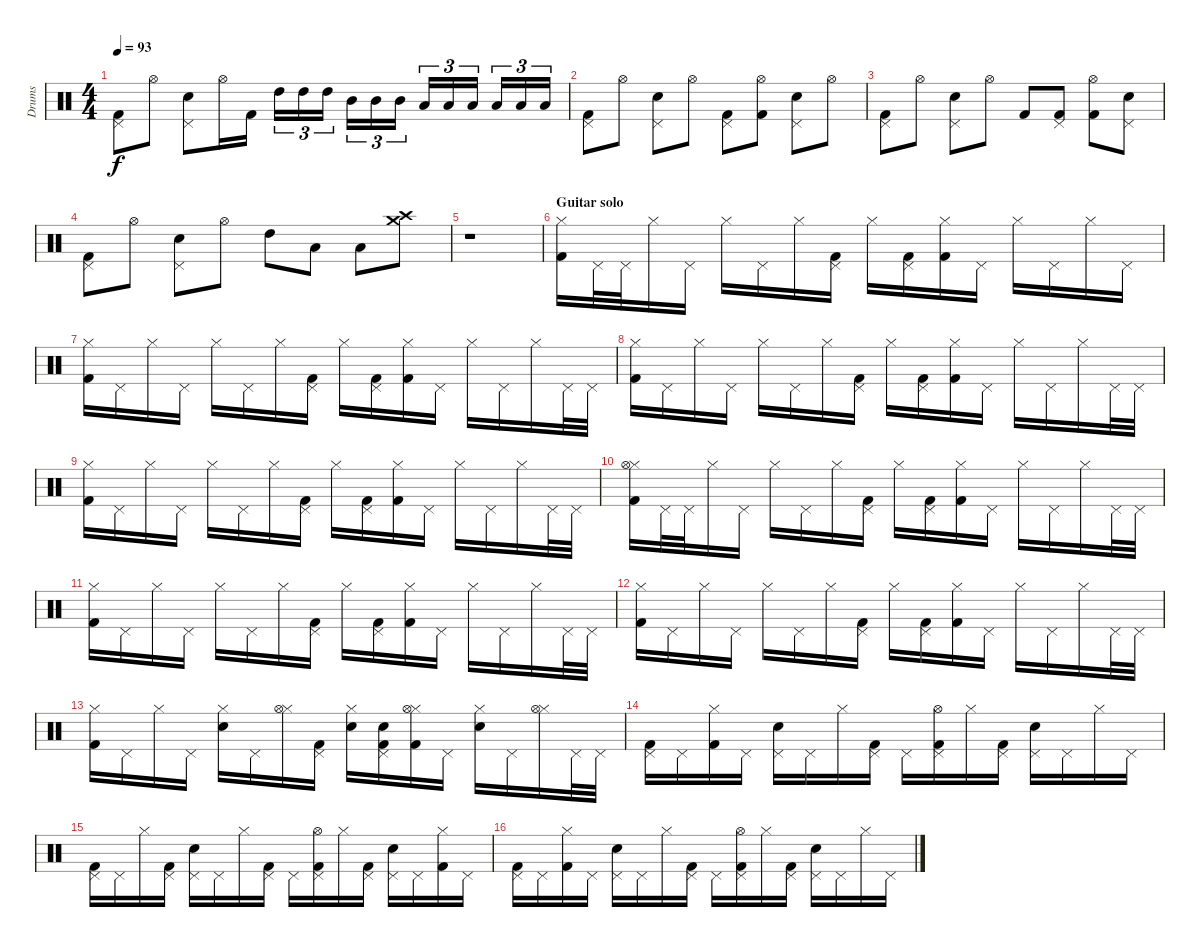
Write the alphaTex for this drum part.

\track ("Drums" "Drums") {instrument percussion}
\staff {score}
\articulation defaults
\ts (4 4)
\tempo 93
\clef neutral
\ks c
("Pedal Hi-Hat (hit)" "Kick (hit) 2").8{dy f} "Hi-Hat (open)".8 ("Pedal Hi-Hat (hit)" "Snare (hit) 2").8 "Hi-Hat (open)".16 "Kick (hit) 2".16 "High Tom (hit)".16{tu (3 2)} "High Tom (hit)".16{tu (3 2)} "High Tom (hit)".16{tu (3 2)} "Mid Tom (hit)".16{tu (3 2)} "Mid Tom (hit)".16{tu (3 2)} "Mid Tom (hit)".16{tu (3 2)} "Low Tom (hit)".16{tu (3 2)} "Low Tom (hit)".16{tu (3 2)} "Low Tom (hit)".16{tu (3 2)} "Low Floor Tom (hit)".16{tu (3 2)} "Low Floor Tom (hit)".16{tu (3 2)} "Low Floor Tom (hit)".16{tu (3 2)} |
("Pedal Hi-Hat (hit)" "Kick (hit) 2").8 "Hi-Hat (open)".8 ("Pedal Hi-Hat (hit)" "Snare (hit) 2").8 "Hi-Hat (open)".8 ("Pedal Hi-Hat (hit)" "Kick (hit) 2").8 ("Hi-Hat (open)" "Kick (hit) 2").8 ("Pedal Hi-Hat (hit)" "Snare (hit) 2").8 "Hi-Hat (open)".8 |
("Pedal Hi-Hat (hit)" "Kick (hit) 2").8 "Hi-Hat (open)".8 ("Pedal Hi-Hat (hit)" "Snare (hit) 2").8 "Hi-Hat (open)".8 "Kick (hit) 2".8 ("Pedal Hi-Hat (hit)" "Kick (hit) 2").8 ("Hi-Hat (open)" "Kick (hit) 2").8 ("Pedal Hi-Hat (hit)" "Snare (hit) 2").8 |
("Pedal Hi-Hat (hit)" "Kick (hit) 2").8 "Hi-Hat (open)".8 ("Pedal Hi-Hat (hit)" "Snare (hit) 2").8 "Hi-Hat (open)".8 "High Tom (hit)".8 "Low Tom (hit)".8 "Low Floor Tom (hit)".8 ("Crash high (hit)" "Crash medium (hit)").8 |
r.1 |
\section ("" "Guitar solo")
("Hi-Hat (closed)" "Kick (hit) 2").16 "Pedal Hi-Hat (hit)".32 "Pedal Hi-Hat (hit)".32 "Hi-Hat (closed)".16 "Pedal Hi-Hat (hit)".16 "Hi-Hat (closed)".16 "Pedal Hi-Hat (hit)".16 "Hi-Hat (closed)".16 ("Pedal Hi-Hat (hit)" "Kick (hit) 2").16 "Hi-Hat (closed)".16 ("Pedal Hi-Hat (hit)" "Kick (hit) 2").16 ("Hi-Hat (closed)" "Kick (hit) 2").16 "Pedal Hi-Hat (hit)".16 "Hi-Hat (closed)".16 "Pedal Hi-Hat (hit)".16 "Hi-Hat (closed)".16 "Pedal Hi-Hat (hit)".16 |
("Hi-Hat (closed)" "Kick (hit) 2").16 "Pedal Hi-Hat (hit)".16 "Hi-Hat (closed)".16 "Pedal Hi-Hat (hit)".16 "Hi-Hat (closed)".16 "Pedal Hi-Hat (hit)".16 "Hi-Hat (closed)".16 ("Pedal Hi-Hat (hit)" "Kick (hit) 2").16 "Hi-Hat (closed)".16 ("Pedal Hi-Hat (hit)" "Kick (hit) 2").16 ("Hi-Hat (closed)" "Kick (hit) 2").16 "Pedal Hi-Hat (hit)".16 "Hi-Hat (closed)".16 "Pedal Hi-Hat (hit)".16 "Hi-Hat (closed)".16 "Pedal Hi-Hat (hit)".32 "Pedal Hi-Hat (hit)".32 |
("Hi-Hat (closed)" "Kick (hit) 2").16 "Pedal Hi-Hat (hit)".16 "Hi-Hat (closed)".16 "Pedal Hi-Hat (hit)".16 "Hi-Hat (closed)".16 "Pedal Hi-Hat (hit)".16 "Hi-Hat (closed)".16 ("Pedal Hi-Hat (hit)" "Kick (hit) 2").16 "Hi-Hat (closed)".16 ("Pedal Hi-Hat (hit)" "Kick (hit) 2").16 ("Hi-Hat (closed)" "Kick (hit) 2").16 "Pedal Hi-Hat (hit)".16 "Hi-Hat (closed)".16 "Pedal Hi-Hat (hit)".16 "Hi-Hat (closed)".16 "Pedal Hi-Hat (hit)".32 "Pedal Hi-Hat (hit)".32 |
("Hi-Hat (closed)" "Kick (hit) 2").16 "Pedal Hi-Hat (hit)".16 "Hi-Hat (closed)".16 "Pedal Hi-Hat (hit)".16 "Hi-Hat (closed)".16 "Pedal Hi-Hat (hit)".16 "Hi-Hat (closed)".16 ("Pedal Hi-Hat (hit)" "Kick (hit) 2").16 "Hi-Hat (closed)".16 ("Pedal Hi-Hat (hit)" "Kick (hit) 2").16 ("Hi-Hat (closed)" "Kick (hit) 2").16 "Pedal Hi-Hat (hit)".16 "Hi-Hat (closed)".16 "Pedal Hi-Hat (hit)".16 "Hi-Hat (closed)".16 "Pedal Hi-Hat (hit)".32 "Pedal Hi-Hat (hit)".32 |
("Hi-Hat (closed)" "Kick (hit) 2" "Hi-Hat (open)").16 "Pedal Hi-Hat (hit)".32 "Pedal Hi-Hat (hit)".32 "Hi-Hat (closed)".16 "Pedal Hi-Hat (hit)".16 "Hi-Hat (closed)".16 "Pedal Hi-Hat (hit)".16 "Hi-Hat (closed)".16 ("Pedal Hi-Hat (hit)" "Kick (hit) 2").16 "Hi-Hat (closed)".16 ("Pedal Hi-Hat (hit)" "Kick (hit) 2").16 ("Hi-Hat (closed)" "Kick (hit) 2").16 "Pedal Hi-Hat (hit)".16 "Hi-Hat (closed)".16 "Pedal Hi-Hat (hit)".16 "Hi-Hat (closed)".16 "Pedal Hi-Hat (hit)".32 "Pedal Hi-Hat (hit)".32 |
("Hi-Hat (closed)" "Kick (hit) 2").16 "Pedal Hi-Hat (hit)".16 "Hi-Hat (closed)".16 "Pedal Hi-Hat (hit)".16 "Hi-Hat (closed)".16 "Pedal Hi-Hat (hit)".16 "Hi-Hat (closed)".16 ("Pedal Hi-Hat (hit)" "Kick (hit) 2").16 "Hi-Hat (closed)".16 ("Pedal Hi-Hat (hit)" "Kick (hit) 2").16 ("Hi-Hat (closed)" "Kick (hit) 2").16 "Pedal Hi-Hat (hit)".16 "Hi-Hat (closed)".16 "Pedal Hi-Hat (hit)".16 "Hi-Hat (closed)".16 "Pedal Hi-Hat (hit)".32 "Pedal Hi-Hat (hit)".32 |
("Hi-Hat (closed)" "Kick (hit) 2").16 "Pedal Hi-Hat (hit)".16 "Hi-Hat (closed)".16 "Pedal Hi-Hat (hit)".16 "Hi-Hat (closed)".16 "Pedal Hi-Hat (hit)".16 "Hi-Hat (closed)".16 ("Pedal Hi-Hat (hit)" "Kick (hit) 2").16 "Hi-Hat (closed)".16 ("Pedal Hi-Hat (hit)" "Kick (hit) 2").16 ("Hi-Hat (closed)" "Kick (hit) 2").16 "Pedal Hi-Hat (hit)".16 "Hi-Hat (closed)".16 "Pedal Hi-Hat (hit)".16 "Hi-Hat (closed)".16 "Pedal Hi-Hat (hit)".32 "Pedal Hi-Hat (hit)".32 |
("Hi-Hat (closed)" "Kick (hit) 2").16 "Pedal Hi-Hat (hit)".16 "Hi-Hat (closed)".16 "Pedal Hi-Hat (hit)".16 ("Hi-Hat (closed)" "Snare (hit) 2").16 "Pedal Hi-Hat (hit)".16 ("Hi-Hat (closed)" "Hi-Hat (open)").16 ("Pedal Hi-Hat (hit)" "Kick (hit) 2").16 ("Snare (hit) 2" "Hi-Hat (closed)").16 ("Snare (hit) 2" "Pedal Hi-Hat (hit)" "Kick (hit) 2").16 ("Hi-Hat (closed)" "Kick (hit) 2" "Hi-Hat (open)").16 "Pedal Hi-Hat (hit)".16 ("Hi-Hat (closed)" "Snare (hit) 2").16 "Pedal Hi-Hat (hit)".16 ("Hi-Hat (closed)" "Hi-Hat (open)").16 "Pedal Hi-Hat (hit)".32 "Pedal Hi-Hat (hit)".32 |
("Pedal Hi-Hat (hit)" "Kick (hit) 2").16 "Pedal Hi-Hat (hit)".16 ("Hi-Hat (closed)" "Kick (hit) 2").16 "Pedal Hi-Hat (hit)".16 ("Pedal Hi-Hat (hit)" "Snare (hit) 2").16 "Pedal Hi-Hat (hit)".16 "Hi-Hat (closed)".16 ("Pedal Hi-Hat (hit)" "Kick (hit) 2").16 "Pedal Hi-Hat (hit)".16 ("Pedal Hi-Hat (hit)" "Kick (hit) 2" "Hi-Hat (open)").16 "Hi-Hat (closed)".16 ("Pedal Hi-Hat (hit)" "Kick (hit) 2").16 ("Pedal Hi-Hat (hit)" "Snare (hit) 2").16 "Pedal Hi-Hat (hit)".16 "Hi-Hat (closed)".16 "Pedal Hi-Hat (hit)".16 |
("Pedal Hi-Hat (hit)" "Kick (hit) 2").16 "Pedal Hi-Hat (hit)".16 "Hi-Hat (closed)".16 ("Pedal Hi-Hat (hit)" "Kick (hit) 2").16 ("Pedal Hi-Hat (hit)" "Snare (hit) 2").16 "Pedal Hi-Hat (hit)".16 "Hi-Hat (closed)".16 ("Pedal Hi-Hat (hit)" "Kick (hit) 2").16 "Pedal Hi-Hat (hit)".16 ("Pedal Hi-Hat (hit)" "Kick (hit) 2" "Hi-Hat (open)").16 "Hi-Hat (closed)".16 ("Pedal Hi-Hat (hit)" "Kick (hit) 2").16 ("Pedal Hi-Hat (hit)" "Snare (hit) 2").16 "Pedal Hi-Hat (hit)".16 ("Hi-Hat (closed)" "Kick (hit) 2").16 "Pedal Hi-Hat (hit)".16 |
("Pedal Hi-Hat (hit)" "Kick (hit) 2").16 "Pedal Hi-Hat (hit)".16 ("Hi-Hat (closed)" "Kick (hit) 2").16 "Pedal Hi-Hat (hit)".16 ("Pedal Hi-Hat (hit)" "Snare (hit) 2").16 "Pedal Hi-Hat (hit)".16 "Hi-Hat (closed)".16 ("Pedal Hi-Hat (hit)" "Kick (hit) 2").16 "Pedal Hi-Hat (hit)".16 ("Pedal Hi-Hat (hit)" "Kick (hit) 2" "Hi-Hat (open)").16 "Hi-Hat (closed)".16 ("Pedal Hi-Hat (hit)" "Kick (hit) 2").16 ("Pedal Hi-Hat (hit)" "Snare (hit) 2").16 "Pedal Hi-Hat (hit)".16 "Hi-Hat (closed)".16 "Pedal Hi-Hat (hit)".16
